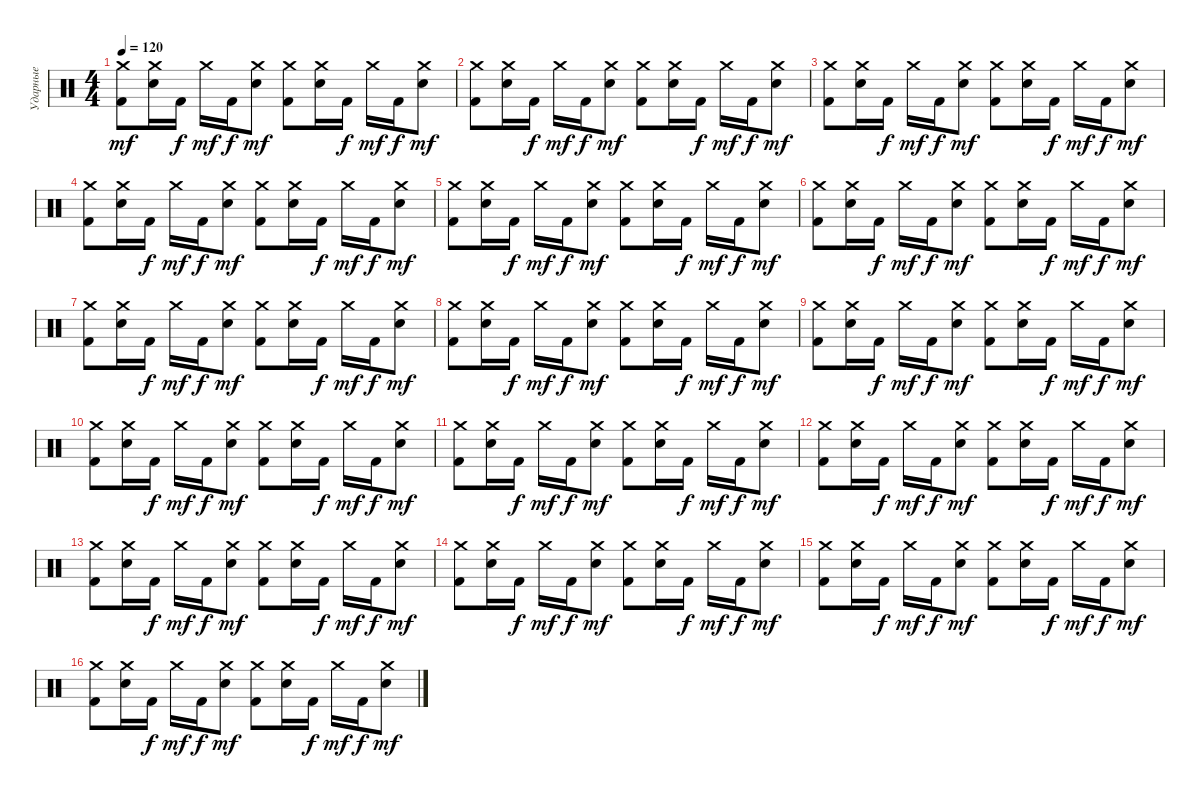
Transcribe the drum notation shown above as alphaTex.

\track ("Ударные" "Ударные") {instrument percussion}
\staff {score}
\articulation defaults
\ts (4 4)
\tempo 120
\clef neutral
\ks c
("Crash medium (hit)" "Kick (hit) 2").8{dy mf} ("Crash medium (hit)" "Electric Snare (hit)").16 "Kick (hit) 2".16{dy f} "Crash medium (hit)".16{dy mf} "Kick (hit) 2".16{dy f} ("Crash medium (hit)" "Electric Snare (hit)").8{dy mf} ("Crash medium (hit)" "Kick (hit) 2").8 ("Crash medium (hit)" "Electric Snare (hit)").16 "Kick (hit) 2".16{dy f} "Crash medium (hit)".16{dy mf} "Kick (hit) 2".16{dy f} ("Crash medium (hit)" "Electric Snare (hit)").8{dy mf} |
("Crash medium (hit)" "Kick (hit) 2").8 ("Crash medium (hit)" "Electric Snare (hit)").16 "Kick (hit) 2".16{dy f} "Crash medium (hit)".16{dy mf} "Kick (hit) 2".16{dy f} ("Crash medium (hit)" "Electric Snare (hit)").8{dy mf} ("Crash medium (hit)" "Kick (hit) 2").8 ("Crash medium (hit)" "Electric Snare (hit)").16 "Kick (hit) 2".16{dy f} "Crash medium (hit)".16{dy mf} "Kick (hit) 2".16{dy f} ("Crash medium (hit)" "Electric Snare (hit)").8{dy mf} |
("Crash medium (hit)" "Kick (hit) 2").8 ("Crash medium (hit)" "Electric Snare (hit)").16 "Kick (hit) 2".16{dy f} "Crash medium (hit)".16{dy mf} "Kick (hit) 2".16{dy f} ("Crash medium (hit)" "Electric Snare (hit)").8{dy mf} ("Crash medium (hit)" "Kick (hit) 2").8 ("Crash medium (hit)" "Electric Snare (hit)").16 "Kick (hit) 2".16{dy f} "Crash medium (hit)".16{dy mf} "Kick (hit) 2".16{dy f} ("Crash medium (hit)" "Electric Snare (hit)").8{dy mf} |
("Crash medium (hit)" "Kick (hit) 2").8 ("Crash medium (hit)" "Electric Snare (hit)").16 "Kick (hit) 2".16{dy f} "Crash medium (hit)".16{dy mf} "Kick (hit) 2".16{dy f} ("Crash medium (hit)" "Electric Snare (hit)").8{dy mf} ("Crash medium (hit)" "Kick (hit) 2").8 ("Crash medium (hit)" "Electric Snare (hit)").16 "Kick (hit) 2".16{dy f} "Crash medium (hit)".16{dy mf} "Kick (hit) 2".16{dy f} ("Crash medium (hit)" "Electric Snare (hit)").8{dy mf} |
("Crash medium (hit)" "Kick (hit) 2").8 ("Crash medium (hit)" "Electric Snare (hit)").16 "Kick (hit) 2".16{dy f} "Crash medium (hit)".16{dy mf} "Kick (hit) 2".16{dy f} ("Crash medium (hit)" "Electric Snare (hit)").8{dy mf} ("Crash medium (hit)" "Kick (hit) 2").8 ("Crash medium (hit)" "Electric Snare (hit)").16 "Kick (hit) 2".16{dy f} "Crash medium (hit)".16{dy mf} "Kick (hit) 2".16{dy f} ("Crash medium (hit)" "Electric Snare (hit)").8{dy mf} |
("Crash medium (hit)" "Kick (hit) 2").8 ("Crash medium (hit)" "Electric Snare (hit)").16 "Kick (hit) 2".16{dy f} "Crash medium (hit)".16{dy mf} "Kick (hit) 2".16{dy f} ("Crash medium (hit)" "Electric Snare (hit)").8{dy mf} ("Crash medium (hit)" "Kick (hit) 2").8 ("Crash medium (hit)" "Electric Snare (hit)").16 "Kick (hit) 2".16{dy f} "Crash medium (hit)".16{dy mf} "Kick (hit) 2".16{dy f} ("Crash medium (hit)" "Electric Snare (hit)").8{dy mf} |
("Crash medium (hit)" "Kick (hit) 2").8 ("Crash medium (hit)" "Electric Snare (hit)").16 "Kick (hit) 2".16{dy f} "Crash medium (hit)".16{dy mf} "Kick (hit) 2".16{dy f} ("Crash medium (hit)" "Electric Snare (hit)").8{dy mf} ("Crash medium (hit)" "Kick (hit) 2").8 ("Crash medium (hit)" "Electric Snare (hit)").16 "Kick (hit) 2".16{dy f} "Crash medium (hit)".16{dy mf} "Kick (hit) 2".16{dy f} ("Crash medium (hit)" "Electric Snare (hit)").8{dy mf} |
("Crash medium (hit)" "Kick (hit) 2").8 ("Crash medium (hit)" "Electric Snare (hit)").16 "Kick (hit) 2".16{dy f} "Crash medium (hit)".16{dy mf} "Kick (hit) 2".16{dy f} ("Crash medium (hit)" "Electric Snare (hit)").8{dy mf} ("Crash medium (hit)" "Kick (hit) 2").8 ("Crash medium (hit)" "Electric Snare (hit)").16 "Kick (hit) 2".16{dy f} "Crash medium (hit)".16{dy mf} "Kick (hit) 2".16{dy f} ("Crash medium (hit)" "Electric Snare (hit)").8{dy mf} |
("Crash medium (hit)" "Kick (hit) 2").8 ("Crash medium (hit)" "Electric Snare (hit)").16 "Kick (hit) 2".16{dy f} "Crash medium (hit)".16{dy mf} "Kick (hit) 2".16{dy f} ("Crash medium (hit)" "Electric Snare (hit)").8{dy mf} ("Crash medium (hit)" "Kick (hit) 2").8 ("Crash medium (hit)" "Electric Snare (hit)").16 "Kick (hit) 2".16{dy f} "Crash medium (hit)".16{dy mf} "Kick (hit) 2".16{dy f} ("Crash medium (hit)" "Electric Snare (hit)").8{dy mf} |
("Crash medium (hit)" "Kick (hit) 2").8 ("Crash medium (hit)" "Electric Snare (hit)").16 "Kick (hit) 2".16{dy f} "Crash medium (hit)".16{dy mf} "Kick (hit) 2".16{dy f} ("Crash medium (hit)" "Electric Snare (hit)").8{dy mf} ("Crash medium (hit)" "Kick (hit) 2").8 ("Crash medium (hit)" "Electric Snare (hit)").16 "Kick (hit) 2".16{dy f} "Crash medium (hit)".16{dy mf} "Kick (hit) 2".16{dy f} ("Crash medium (hit)" "Electric Snare (hit)").8{dy mf} |
("Crash medium (hit)" "Kick (hit) 2").8 ("Crash medium (hit)" "Electric Snare (hit)").16 "Kick (hit) 2".16{dy f} "Crash medium (hit)".16{dy mf} "Kick (hit) 2".16{dy f} ("Crash medium (hit)" "Electric Snare (hit)").8{dy mf} ("Crash medium (hit)" "Kick (hit) 2").8 ("Crash medium (hit)" "Electric Snare (hit)").16 "Kick (hit) 2".16{dy f} "Crash medium (hit)".16{dy mf} "Kick (hit) 2".16{dy f} ("Crash medium (hit)" "Electric Snare (hit)").8{dy mf} |
("Crash medium (hit)" "Kick (hit) 2").8 ("Crash medium (hit)" "Electric Snare (hit)").16 "Kick (hit) 2".16{dy f} "Crash medium (hit)".16{dy mf} "Kick (hit) 2".16{dy f} ("Crash medium (hit)" "Electric Snare (hit)").8{dy mf} ("Crash medium (hit)" "Kick (hit) 2").8 ("Crash medium (hit)" "Electric Snare (hit)").16 "Kick (hit) 2".16{dy f} "Crash medium (hit)".16{dy mf} "Kick (hit) 2".16{dy f} ("Crash medium (hit)" "Electric Snare (hit)").8{dy mf} |
("Crash medium (hit)" "Kick (hit) 2").8 ("Crash medium (hit)" "Electric Snare (hit)").16 "Kick (hit) 2".16{dy f} "Crash medium (hit)".16{dy mf} "Kick (hit) 2".16{dy f} ("Crash medium (hit)" "Electric Snare (hit)").8{dy mf} ("Crash medium (hit)" "Kick (hit) 2").8 ("Crash medium (hit)" "Electric Snare (hit)").16 "Kick (hit) 2".16{dy f} "Crash medium (hit)".16{dy mf} "Kick (hit) 2".16{dy f} ("Crash medium (hit)" "Electric Snare (hit)").8{dy mf} |
("Crash medium (hit)" "Kick (hit) 2").8 ("Crash medium (hit)" "Electric Snare (hit)").16 "Kick (hit) 2".16{dy f} "Crash medium (hit)".16{dy mf} "Kick (hit) 2".16{dy f} ("Crash medium (hit)" "Electric Snare (hit)").8{dy mf} ("Crash medium (hit)" "Kick (hit) 2").8 ("Crash medium (hit)" "Electric Snare (hit)").16 "Kick (hit) 2".16{dy f} "Crash medium (hit)".16{dy mf} "Kick (hit) 2".16{dy f} ("Crash medium (hit)" "Electric Snare (hit)").8{dy mf} |
("Crash medium (hit)" "Kick (hit) 2").8 ("Crash medium (hit)" "Electric Snare (hit)").16 "Kick (hit) 2".16{dy f} "Crash medium (hit)".16{dy mf} "Kick (hit) 2".16{dy f} ("Crash medium (hit)" "Electric Snare (hit)").8{dy mf} ("Crash medium (hit)" "Kick (hit) 2").8 ("Crash medium (hit)" "Electric Snare (hit)").16 "Kick (hit) 2".16{dy f} "Crash medium (hit)".16{dy mf} "Kick (hit) 2".16{dy f} ("Crash medium (hit)" "Electric Snare (hit)").8{dy mf} |
("Crash medium (hit)" "Kick (hit) 2").8 ("Crash medium (hit)" "Electric Snare (hit)").16 "Kick (hit) 2".16{dy f} "Crash medium (hit)".16{dy mf} "Kick (hit) 2".16{dy f} ("Crash medium (hit)" "Electric Snare (hit)").8{dy mf} ("Crash medium (hit)" "Kick (hit) 2").8 ("Crash medium (hit)" "Electric Snare (hit)").16 "Kick (hit) 2".16{dy f} "Crash medium (hit)".16{dy mf} "Kick (hit) 2".16{dy f} ("Crash medium (hit)" "Electric Snare (hit)").8{dy mf}
